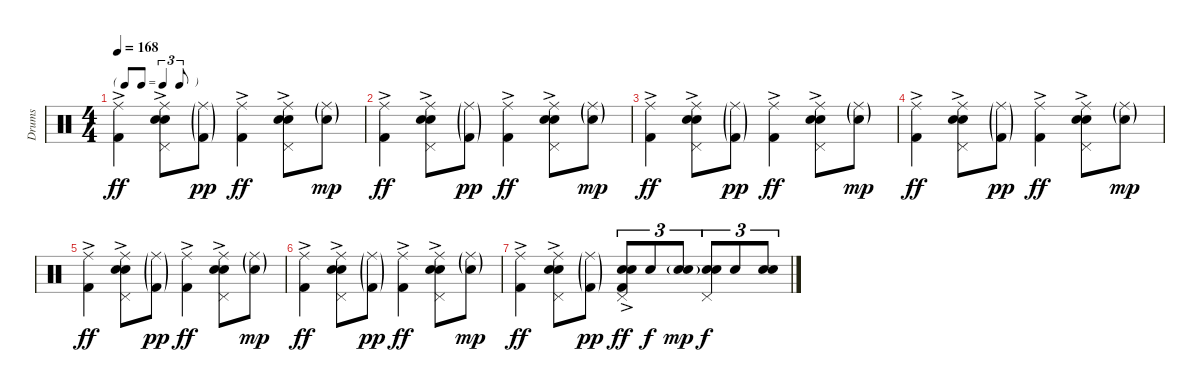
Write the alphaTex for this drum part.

\track ("Drums" "Drums") {instrument percussion}
\staff {score}
\articulation defaults
\ts (4 4)
\tf triplet8th
\tempo 168
\clef neutral
\ks c
("Ride (middle)" "Kick (hit) 2"{ac}).4{dy ff} ("Ride (middle)" "Pedal Hi-Hat (hit)" "Electric Snare (hit)"{ac} "Snare (hit) 2").8 ("Ride (middle)"{g} "Kick (hit) 2"{g}).8{dy pp} ("Ride (middle)" "Kick (hit) 2"{ac}).4{dy ff} ("Ride (middle)" "Pedal Hi-Hat (hit)" "Electric Snare (hit)"{ac} "Snare (hit) 2").8 ("Ride (middle)"{g} "Snare (hit) 2"{g}).8{dy mp} |
("Ride (middle)" "Kick (hit) 2"{ac}).4{dy ff} ("Ride (middle)" "Pedal Hi-Hat (hit)" "Electric Snare (hit)"{ac} "Snare (hit) 2").8 ("Ride (middle)"{g} "Kick (hit) 2"{g}).8{dy pp} ("Ride (middle)" "Kick (hit) 2"{ac}).4{dy ff} ("Ride (middle)" "Pedal Hi-Hat (hit)" "Electric Snare (hit)"{ac} "Snare (hit) 2").8 ("Ride (middle)"{g} "Snare (hit) 2"{g}).8{dy mp} |
("Ride (middle)" "Kick (hit) 2"{ac}).4{dy ff} ("Ride (middle)" "Pedal Hi-Hat (hit)" "Electric Snare (hit)"{ac} "Snare (hit) 2").8 ("Ride (middle)"{g} "Kick (hit) 2"{g}).8{dy pp} ("Ride (middle)" "Kick (hit) 2"{ac}).4{dy ff} ("Ride (middle)" "Pedal Hi-Hat (hit)" "Electric Snare (hit)"{ac} "Snare (hit) 2").8 ("Ride (middle)"{g} "Snare (hit) 2"{g}).8{dy mp} |
("Ride (middle)" "Kick (hit) 2"{ac}).4{dy ff} ("Ride (middle)" "Pedal Hi-Hat (hit)" "Electric Snare (hit)"{ac} "Snare (hit) 2").8 ("Ride (middle)"{g} "Kick (hit) 2"{g}).8{dy pp} ("Ride (middle)" "Kick (hit) 2"{ac}).4{dy ff} ("Ride (middle)" "Pedal Hi-Hat (hit)" "Electric Snare (hit)"{ac} "Snare (hit) 2").8 ("Ride (middle)"{g} "Snare (hit) 2"{g}).8{dy mp} |
("Ride (middle)" "Kick (hit) 2"{ac}).4{dy ff} ("Ride (middle)" "Pedal Hi-Hat (hit)" "Electric Snare (hit)"{ac} "Snare (hit) 2").8 ("Ride (middle)"{g} "Kick (hit) 2"{g}).8{dy pp} ("Ride (middle)" "Kick (hit) 2"{ac}).4{dy ff} ("Ride (middle)" "Pedal Hi-Hat (hit)" "Electric Snare (hit)"{ac} "Snare (hit) 2").8 ("Ride (middle)"{g} "Snare (hit) 2"{g}).8{dy mp} |
("Ride (middle)" "Kick (hit) 2"{ac}).4{dy ff} ("Ride (middle)" "Pedal Hi-Hat (hit)" "Electric Snare (hit)"{ac} "Snare (hit) 2").8 ("Ride (middle)"{g} "Kick (hit) 2"{g}).8{dy pp} ("Ride (middle)" "Kick (hit) 2"{ac}).4{dy ff} ("Ride (middle)" "Pedal Hi-Hat (hit)" "Electric Snare (hit)"{ac} "Snare (hit) 2").8 ("Ride (middle)"{g} "Snare (hit) 2"{g}).8{dy mp} |
("Ride (middle)" "Kick (hit) 2"{ac}).4{dy ff} ("Ride (middle)" "Pedal Hi-Hat (hit)" "Electric Snare (hit)"{ac} "Snare (hit) 2").8 ("Ride (middle)"{g} "Kick (hit) 2"{g}).8{dy pp} ("Pedal Hi-Hat (hit)" "Electric Snare (hit)" "Snare (hit) 2" "Kick (hit) 2"{ac}).8{tu (3 2) dy ff} "Snare (hit) 2".8{tu (3 2) dy f} ("Electric Snare (hit)"{g} "Snare (hit) 2").8{tu (3 2) dy mp} ("Pedal Hi-Hat (hit)" "Electric Snare (hit)" "Snare (hit) 2").8{tu (3 2) dy f} "Snare (hit) 2".8{tu (3 2)} ("Electric Snare (hit)" "Snare (hit) 2").8{tu (3 2)}
